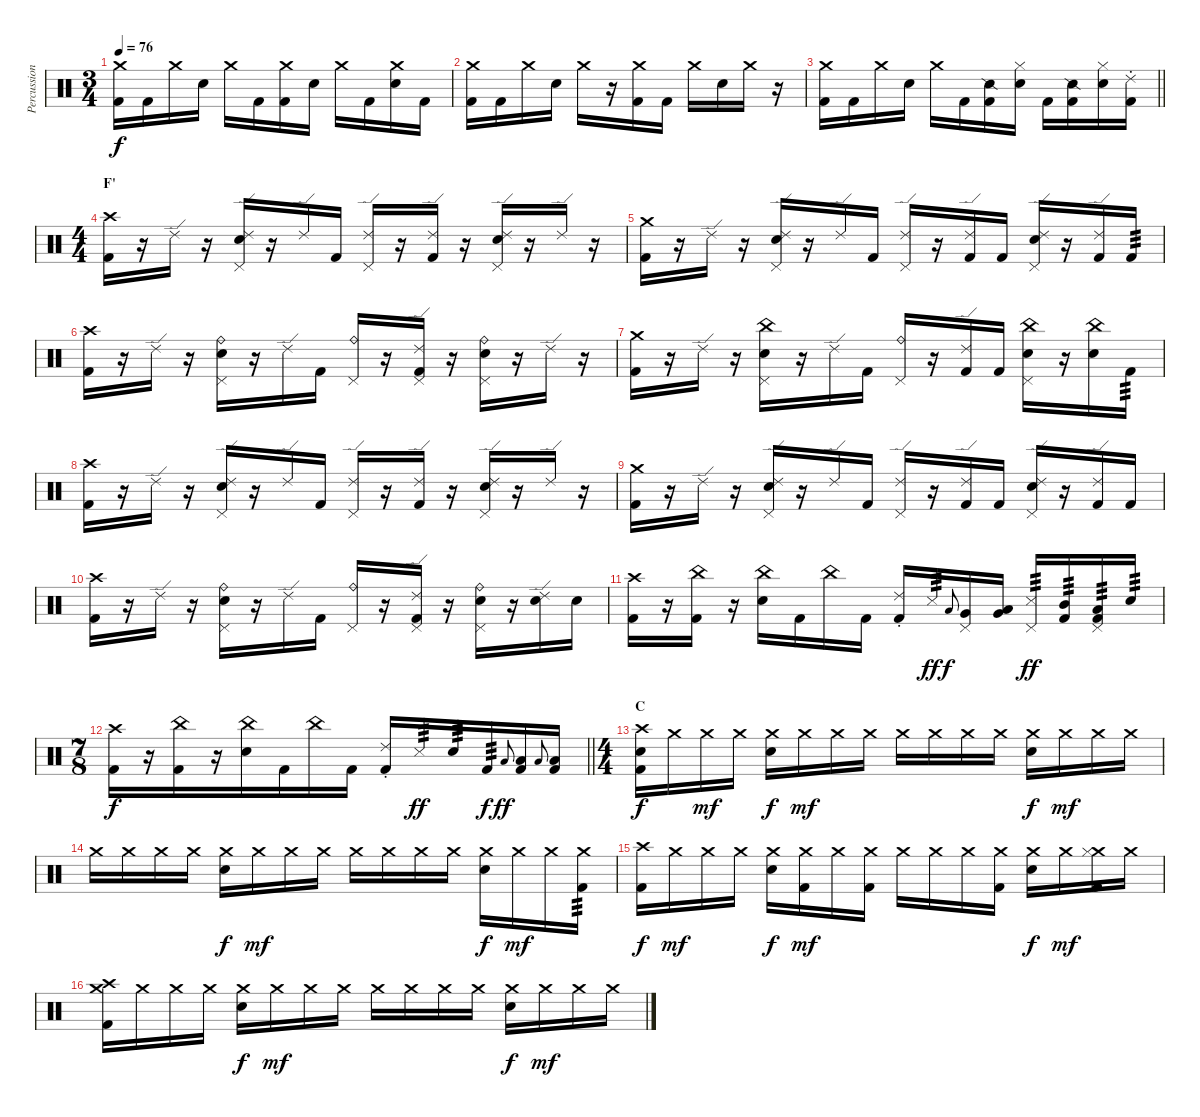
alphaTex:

\track ("Percussion" "Percussion") {instrument percussion}
\staff {score}
\articulation defaults
\ts (3 4)
\tempo 76
\clef neutral
\ks c
("Crash medium (hit)" "Kick (hit) 2").16{dy f} "Kick (hit) 2".16 "Crash medium (hit)".16 "Snare (hit) 2".16 "Crash medium (hit)".16 "Kick (hit) 2".16 ("Crash medium (hit)" "Kick (hit) 2").16 "Snare (hit) 2".16 "Crash medium (hit)".16 "Kick (hit) 2".16 ("Crash medium (hit)" "Snare (hit) 2").16 "Kick (hit) 2".16 |
("Crash medium (hit)" "Kick (hit) 2").16 "Kick (hit) 2".16 "Crash medium (hit)".16 "Snare (hit) 2".16 "Crash medium (hit)".16 r.16 ("Crash medium (hit)" "Kick (hit) 2").16 "Kick (hit) 2".16 "Crash medium (hit)".16 "Snare (hit) 2".16 "Crash medium (hit)".16 r.16 |
\barLineRight lightlight
("Crash medium (hit)" "Kick (hit) 2").16 "Kick (hit) 2".16 "Crash medium (hit)".16 "Snare (hit) 2".16 "Crash medium (hit)".16 "Kick (hit) 2".16 ("Snare (side stick) 2" "Kick (hit) 2").16 ("Hi-Hat (closed)" "Snare (hit) 2").16 "Kick (hit) 2".16 ("Snare (side stick) 2" "Kick (hit) 2").16 ("Hi-Hat (closed)" "Snare (hit) 2").16 ("Ride (choke) 2" "Kick (hit) 2").16 |
\ts (4 4)
\section ("" "F'")
("Crash high (hit)" "Kick (hit) 2").16 r.16 "Ride (edge) 2".16 r.16 ("Ride (edge) 2" "Pedal Hi-Hat (hit)" "Snare (hit) 2").16 r.16 "Ride (edge) 2".16 "Kick (hit) 2".16 ("Ride (edge) 2" "Pedal Hi-Hat (hit)").16 r.16 ("Ride (edge) 2" "Kick (hit) 2").16 r.16 ("Ride (edge) 2" "Pedal Hi-Hat (hit)" "Snare (hit) 2").16 r.16 "Ride (edge) 2".16 r.16 |
("Crash medium (hit)" "Kick (hit) 2").16 r.16 "Ride (edge) 2".16 r.16 ("Ride (edge) 2" "Pedal Hi-Hat (hit)" "Snare (hit) 2").16 r.16 "Ride (edge) 2".16 "Kick (hit) 2".16 ("Ride (edge) 2" "Pedal Hi-Hat (hit)").16 r.16 ("Ride (edge) 2" "Kick (hit) 2").16 "Kick (hit) 2".16 ("Ride (edge) 2" "Pedal Hi-Hat (hit)" "Snare (hit) 2").16 r.16 ("Ride (edge) 2" "Kick (hit) 2").16 "Kick (hit) 2".16{tp 3} |
("Crash high (hit)" "Kick (hit) 2").16 r.16 "Ride (edge) 2".16 r.16 ("Ride (bell)" "Pedal Hi-Hat (hit)" "Snare (hit) 2").16 r.16 "Ride (edge) 2".16 "Kick (hit) 2".16 ("Ride (bell)" "Pedal Hi-Hat (hit)").16 r.16 ("Ride (edge) 2" "Pedal Hi-Hat (hit)" "Kick (hit) 2").16 r.16 ("Ride (bell)" "Pedal Hi-Hat (hit)" "Snare (hit) 2").16 r.16 "Ride (edge) 2".16 r.16 |
("Crash medium (hit)" "Kick (hit) 2").16 r.16 "Ride (edge) 2".16 r.16 ("China (hit)" "Pedal Hi-Hat (hit)" "Snare (hit) 2").16 r.16 "Ride (edge) 2".16 "Kick (hit) 2".16 ("Ride (bell)" "Pedal Hi-Hat (hit)").16 r.16 ("Ride (edge) 2" "Kick (hit) 2").16 "Kick (hit) 2".16 ("China (hit)" "Pedal Hi-Hat (hit)" "Snare (hit) 2").16 r.16 ("China (hit)" "Snare (hit) 2").16 "Kick (hit) 2".16{tp 3} |
("Crash high (hit)" "Kick (hit) 2").16 r.16 "Ride (edge) 2".16 r.16 ("Ride (edge) 2" "Pedal Hi-Hat (hit)" "Snare (hit) 2").16 r.16 "Ride (edge) 2".16 "Kick (hit) 2".16 ("Ride (edge) 2" "Pedal Hi-Hat (hit)").16 r.16 ("Ride (edge) 2" "Kick (hit) 2").16 r.16 ("Ride (edge) 2" "Pedal Hi-Hat (hit)" "Snare (hit) 2").16 r.16 "Ride (edge) 2".16 r.16 |
("Crash medium (hit)" "Kick (hit) 2").16 r.16 "Ride (edge) 2".16 r.16 ("Ride (edge) 2" "Pedal Hi-Hat (hit)" "Snare (hit) 2").16 r.16 "Ride (edge) 2".16 "Kick (hit) 2".16 ("Ride (edge) 2" "Pedal Hi-Hat (hit)").16 r.16 ("Ride (edge) 2" "Kick (hit) 2").16 "Kick (hit) 2".16 ("Ride (edge) 2" "Pedal Hi-Hat (hit)" "Snare (hit) 2").16 r.16 ("Ride (edge) 2" "Kick (hit) 2").16 "Kick (hit) 2".16 |
("Crash high (hit)" "Kick (hit) 2").16 r.16 "Ride (edge) 2".16 r.16 ("Ride (bell)" "Pedal Hi-Hat (hit)" "Snare (hit) 2").16 r.16 "Ride (edge) 2".16 "Kick (hit) 2".16 ("Ride (bell)" "Pedal Hi-Hat (hit)").16 r.16 ("Ride (edge) 2" "Pedal Hi-Hat (hit)" "Kick (hit) 2").16 r.16 ("Ride (bell)" "Pedal Hi-Hat (hit)" "Snare (hit) 2").16 r.16 ("Ride (edge) 2" "Snare (hit) 2").16 "Snare (hit) 2".16 |
("Crash high (hit)" "Kick (hit) 2").16 r.16 ("China (hit)" "Kick (hit) 2").16 r.16 ("China (hit)" "Snare (hit) 2").16 "Kick (hit) 2".16 "China (hit)".16 "Kick (hit) 2".16 ("Ride (choke) 2" "Kick (hit) 2").16 "Metronome (hit)".16{tp 3 dy ff} "Low Tom (hit)".8{gr onbeat dy f} ("Pedal Hi-Hat (hit)" "Very Low Tom (hit)").16 ("Very Low Tom (hit)" "Low Floor Tom (hit)").16{bu 60} ("Pedal Hi-Hat (hit)" "Metronome (hit)").16{tp 3 dy ff} ("Mid Tom (hit)" "Kick (hit) 2").16{tp 3} ("Pedal Hi-Hat (hit)" "Low Tom (hit)" "Kick (hit) 2").16{tp 3} "Snare (hit) 2".16{tp 3} |
\ts (7 8)
\barLineRight lightlight
("Crash high (hit)" "Kick (hit) 2").16{dy f} r.16 ("China (hit)" "Kick (hit) 2").16 r.16 ("China (hit)" "Snare (hit) 2").16 "Kick (hit) 2".16 "China (hit)".16 "Kick (hit) 2".16 ("Ride (choke) 2" "Kick (hit) 2").16 "Metronome (hit)".16{tp 3 dy ff} "Snare (hit) 2".16{tp 3} "Kick (hit) 2".16{tp 3 dy f} "Low Tom (hit)".8{gr onbeat dy ff} ("Low Tom (hit)" "Kick (hit) 2").16 "Low Tom (hit)".8{gr onbeat} ("Low Tom (hit)" "Kick (hit) 2").16 |
\ts (4 4)
\section ("" "C")
("Crash high (hit)" "Snare (hit) 2" "Kick (hit) 2").16{dy f} "Crash medium (hit)".16 "Crash medium (hit)".16{dy mf} "Crash medium (hit)".16 ("Crash medium (hit)" "Snare (hit) 2").16{dy f} "Crash medium (hit)".16{dy mf} "Crash medium (hit)".16 "Crash medium (hit)".16 "Crash medium (hit)".16 "Crash medium (hit)".16 "Crash medium (hit)".16 "Crash medium (hit)".16 ("Crash medium (hit)" "Snare (hit) 2").16{dy f} "Crash medium (hit)".16{dy mf} "Crash medium (hit)".16 "Crash medium (hit)".16 |
"Crash medium (hit)".16 "Crash medium (hit)".16 "Crash medium (hit)".16 "Crash medium (hit)".16 ("Crash medium (hit)" "Snare (hit) 2").16{dy f} "Crash medium (hit)".16{dy mf} "Crash medium (hit)".16 "Crash medium (hit)".16 "Crash medium (hit)".16 "Crash medium (hit)".16 "Crash medium (hit)".16 "Crash medium (hit)".16 ("Crash medium (hit)" "Snare (hit) 2").16{dy f} "Crash medium (hit)".16{dy mf} "Crash medium (hit)".16 ("Crash medium (hit)" "Kick (hit) 2").16{tp 3} |
("Crash high (hit)" "Kick (hit) 2").16{dy f} "Crash medium (hit)".16{dy mf} "Crash medium (hit)".16 "Crash medium (hit)".16 ("Crash medium (hit)" "Snare (hit) 2").16{dy f} ("Crash medium (hit)" "Kick (hit) 2").16{dy mf} "Crash medium (hit)".16 ("Crash medium (hit)" "Kick (hit) 2").16 "Crash medium (hit)".16 "Crash medium (hit)".16 "Crash medium (hit)".16 ("Crash medium (hit)" "Kick (hit) 2").16 ("Crash medium (hit)" "Snare (hit) 2").16{dy f} "Crash medium (hit)".16{dy mf} ("Crash medium (hit)" "Hi-Hat (closed)" "Kick (hit) 2").16 "Crash medium (hit)".16 |
("Crash medium (hit)" "Crash high (hit)" "Kick (hit) 2").16 "Crash medium (hit)".16 "Crash medium (hit)".16 "Crash medium (hit)".16 ("Crash medium (hit)" "Snare (hit) 2").16{dy f} "Crash medium (hit)".16{dy mf} "Crash medium (hit)".16 "Crash medium (hit)".16 "Crash medium (hit)".16 "Crash medium (hit)".16 "Crash medium (hit)".16 "Crash medium (hit)".16 ("Crash medium (hit)" "Snare (hit) 2").16{dy f} "Crash medium (hit)".16{dy mf} "Crash medium (hit)".16 "Crash medium (hit)".16
